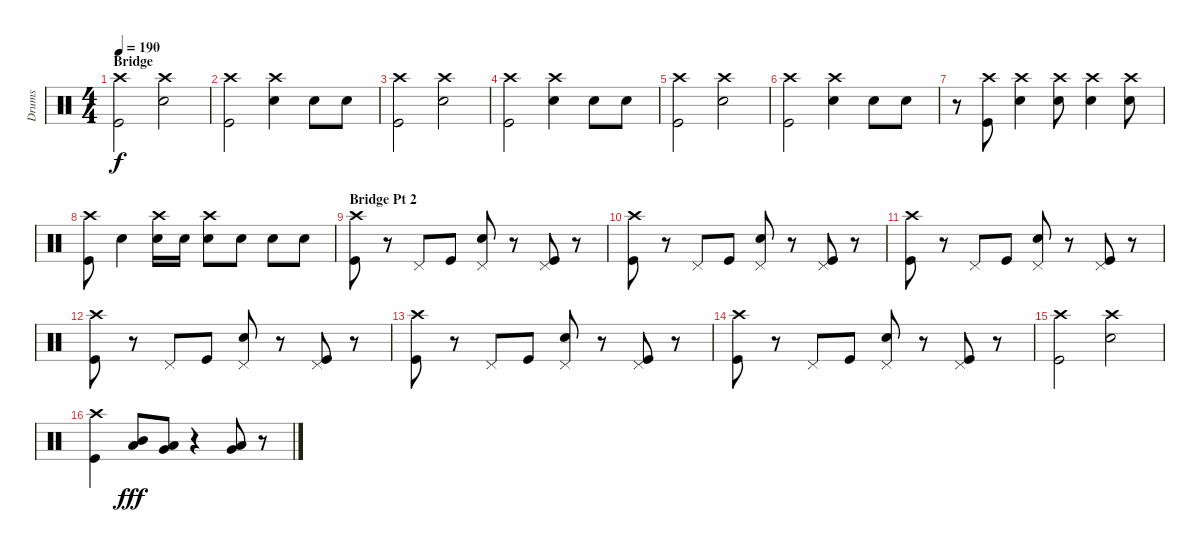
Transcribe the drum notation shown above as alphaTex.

\track ("Drums" "Drums") {instrument percussion}
\staff {score}
\articulation defaults
\ts (4 4)
\section ("" "Bridge")
\tempo 190
\clef neutral
\ks c
("Crash high (hit)" "Kick (hit)").2{dy f} ("Crash high (hit)" "Snare (hit) 2").2 |
("Crash high (hit)" "Kick (hit)").2 ("Crash high (hit)" "Snare (hit) 2").4 "Snare (hit) 2".8 "Snare (hit) 2".8 |
("Crash high (hit)" "Kick (hit)").2 ("Crash high (hit)" "Snare (hit) 2").2 |
("Crash high (hit)" "Kick (hit)").2 ("Crash high (hit)" "Snare (hit) 2").4 "Snare (hit) 2".8 "Snare (hit) 2".8 |
("Crash high (hit)" "Kick (hit)").2 ("Crash high (hit)" "Snare (hit) 2").2 |
("Crash high (hit)" "Kick (hit)").2 ("Crash high (hit)" "Snare (hit) 2").4 "Snare (hit) 2".8 "Snare (hit) 2".8 |
r.8 ("Crash high (hit)" "Kick (hit)").8 ("Crash high (hit)" "Snare (hit) 2").4 ("Crash high (hit)" "Snare (hit) 2").8 ("Crash high (hit)" "Snare (hit) 2").4 ("Crash high (hit)" "Snare (hit) 2").8 |
("Crash high (hit)" "Kick (hit)").8 "Snare (hit) 2".4 ("Crash high (hit)" "Snare (hit) 2").16 "Snare (hit) 2".16 ("Crash high (hit)" "Snare (hit) 2").8 "Snare (hit) 2".8 "Snare (hit) 2".8 "Snare (hit) 2".8 |
\section ("" "Bridge Pt 2")
("Crash high (hit)" "Kick (hit)").8 r.8 "Pedal Hi-Hat (hit)".8 "Kick (hit)".8 ("Pedal Hi-Hat (hit)" "Snare (hit) 2").8 r.8 ("Pedal Hi-Hat (hit)" "Kick (hit)").8 r.8 |
("Crash high (hit)" "Kick (hit)").8 r.8 "Pedal Hi-Hat (hit)".8 "Kick (hit)".8 ("Pedal Hi-Hat (hit)" "Snare (hit) 2").8 r.8 ("Pedal Hi-Hat (hit)" "Kick (hit)").8 r.8 |
("Crash high (hit)" "Kick (hit)").8 r.8 "Pedal Hi-Hat (hit)".8 "Kick (hit)".8 ("Pedal Hi-Hat (hit)" "Snare (hit) 2").8 r.8 ("Pedal Hi-Hat (hit)" "Kick (hit)").8 r.8 |
("Crash high (hit)" "Kick (hit)").8 r.8 "Pedal Hi-Hat (hit)".8 "Kick (hit)".8 ("Pedal Hi-Hat (hit)" "Snare (hit) 2").8 r.8 ("Pedal Hi-Hat (hit)" "Kick (hit)").8 r.8 |
("Crash high (hit)" "Kick (hit)").8 r.8 "Pedal Hi-Hat (hit)".8 "Kick (hit)".8 ("Pedal Hi-Hat (hit)" "Snare (hit) 2").8 r.8 ("Pedal Hi-Hat (hit)" "Kick (hit)").8 r.8 |
("Crash high (hit)" "Kick (hit)").8 r.8 "Pedal Hi-Hat (hit)".8 "Kick (hit)".8 ("Pedal Hi-Hat (hit)" "Snare (hit) 2").8 r.8 ("Pedal Hi-Hat (hit)" "Kick (hit)").8 r.8 |
("Crash high (hit)" "Kick (hit)").2 ("Crash high (hit)" "Snare (hit) 2").2 |
("Crash high (hit)" "Kick (hit)").4 ("Low Tom (hit)" "Mid Tom (hit)").8{dy fff} ("Very Low Tom (hit)" "Low Tom (hit)").8 r.4 ("Low Floor Tom (hit)" "Very Low Tom (hit)").8 r.8
